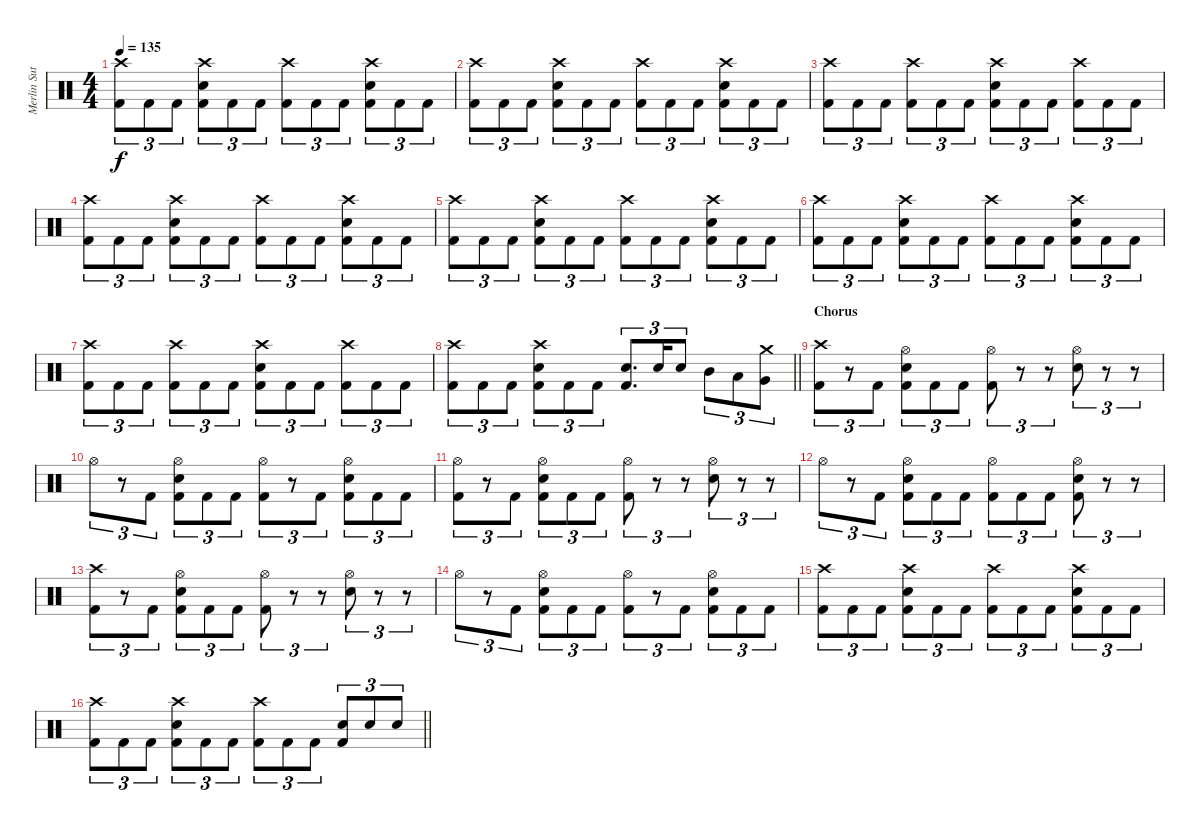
\track ("Merlin Sutter" "Merlin Sut") {instrument percussion}
\staff {score}
\articulation defaults
\ts (4 4)
\tempo 135
\clef neutral
\ks c
("Crash high (hit)" "Kick (hit) 2").8{tu (3 2) dy f} "Kick (hit) 2".8{tu (3 2)} "Kick (hit) 2".8{tu (3 2)} ("Crash high (hit)" "Snare (hit) 2" "Kick (hit) 2").8{tu (3 2)} "Kick (hit) 2".8{tu (3 2)} "Kick (hit) 2".8{tu (3 2)} ("Crash high (hit)" "Kick (hit) 2").8{tu (3 2)} "Kick (hit) 2".8{tu (3 2)} "Kick (hit) 2".8{tu (3 2)} ("Crash high (hit)" "Snare (hit) 2" "Kick (hit) 2").8{tu (3 2)} "Kick (hit) 2".8{tu (3 2)} "Kick (hit) 2".8{tu (3 2)} |
("Crash high (hit)" "Kick (hit) 2").8{tu (3 2)} "Kick (hit) 2".8{tu (3 2)} "Kick (hit) 2".8{tu (3 2)} ("Crash high (hit)" "Snare (hit) 2" "Kick (hit) 2").8{tu (3 2)} "Kick (hit) 2".8{tu (3 2)} "Kick (hit) 2".8{tu (3 2)} ("Crash high (hit)" "Kick (hit) 2").8{tu (3 2)} "Kick (hit) 2".8{tu (3 2)} "Kick (hit) 2".8{tu (3 2)} ("Crash high (hit)" "Snare (hit) 2" "Kick (hit) 2").8{tu (3 2)} "Kick (hit) 2".8{tu (3 2)} "Kick (hit) 2".8{tu (3 2)} |
("Crash high (hit)" "Kick (hit) 2").8{tu (3 2)} "Kick (hit) 2".8{tu (3 2)} "Kick (hit) 2".8{tu (3 2)} ("Crash high (hit)" "Kick (hit) 2").8{tu (3 2)} "Kick (hit) 2".8{tu (3 2)} "Kick (hit) 2".8{tu (3 2)} ("Crash high (hit)" "Snare (hit) 2" "Kick (hit) 2").8{tu (3 2)} "Kick (hit) 2".8{tu (3 2)} "Kick (hit) 2".8{tu (3 2)} ("Crash high (hit)" "Kick (hit) 2").8{tu (3 2)} "Kick (hit) 2".8{tu (3 2)} "Kick (hit) 2".8{tu (3 2)} |
("Crash high (hit)" "Kick (hit) 2").8{tu (3 2)} "Kick (hit) 2".8{tu (3 2)} "Kick (hit) 2".8{tu (3 2)} ("Crash high (hit)" "Snare (hit) 2" "Kick (hit) 2").8{tu (3 2)} "Kick (hit) 2".8{tu (3 2)} "Kick (hit) 2".8{tu (3 2)} ("Crash high (hit)" "Kick (hit) 2").8{tu (3 2)} "Kick (hit) 2".8{tu (3 2)} "Kick (hit) 2".8{tu (3 2)} ("Crash high (hit)" "Snare (hit) 2" "Kick (hit) 2").8{tu (3 2)} "Kick (hit) 2".8{tu (3 2)} "Kick (hit) 2".8{tu (3 2)} |
("Crash high (hit)" "Kick (hit) 2").8{tu (3 2)} "Kick (hit) 2".8{tu (3 2)} "Kick (hit) 2".8{tu (3 2)} ("Crash high (hit)" "Snare (hit) 2" "Kick (hit) 2").8{tu (3 2)} "Kick (hit) 2".8{tu (3 2)} "Kick (hit) 2".8{tu (3 2)} ("Crash high (hit)" "Kick (hit) 2").8{tu (3 2)} "Kick (hit) 2".8{tu (3 2)} "Kick (hit) 2".8{tu (3 2)} ("Crash high (hit)" "Snare (hit) 2" "Kick (hit) 2").8{tu (3 2)} "Kick (hit) 2".8{tu (3 2)} "Kick (hit) 2".8{tu (3 2)} |
("Crash high (hit)" "Kick (hit) 2").8{tu (3 2)} "Kick (hit) 2".8{tu (3 2)} "Kick (hit) 2".8{tu (3 2)} ("Crash high (hit)" "Snare (hit) 2" "Kick (hit) 2").8{tu (3 2)} "Kick (hit) 2".8{tu (3 2)} "Kick (hit) 2".8{tu (3 2)} ("Crash high (hit)" "Kick (hit) 2").8{tu (3 2)} "Kick (hit) 2".8{tu (3 2)} "Kick (hit) 2".8{tu (3 2)} ("Crash high (hit)" "Snare (hit) 2" "Kick (hit) 2").8{tu (3 2)} "Kick (hit) 2".8{tu (3 2)} "Kick (hit) 2".8{tu (3 2)} |
("Crash high (hit)" "Kick (hit) 2").8{tu (3 2)} "Kick (hit) 2".8{tu (3 2)} "Kick (hit) 2".8{tu (3 2)} ("Crash high (hit)" "Kick (hit) 2").8{tu (3 2)} "Kick (hit) 2".8{tu (3 2)} "Kick (hit) 2".8{tu (3 2)} ("Crash high (hit)" "Snare (hit) 2" "Kick (hit) 2").8{tu (3 2)} "Kick (hit) 2".8{tu (3 2)} "Kick (hit) 2".8{tu (3 2)} ("Crash high (hit)" "Kick (hit) 2").8{tu (3 2)} "Kick (hit) 2".8{tu (3 2)} "Kick (hit) 2".8{tu (3 2)} |
\barLineRight lightlight
("Crash high (hit)" "Kick (hit) 2").8{tu (3 2)} "Kick (hit) 2".8{tu (3 2)} "Kick (hit) 2".8{tu (3 2)} ("Crash high (hit)" "Snare (hit) 2" "Kick (hit) 2").8{tu (3 2)} "Kick (hit) 2".8{tu (3 2)} "Kick (hit) 2".8{tu (3 2)} ("Snare (hit) 2" "Kick (hit) 2").8{d tu (3 2)} "Snare (hit) 2".16{tu (3 2)} "Snare (hit) 2".8{tu (3 2)} "Mid Tom (hit)".8{tu (3 2)} "Low Tom (hit)".8{tu (3 2)} ("Crash medium (hit)" "Very Low Tom (hit)").8{tu (3 2)} |
\section ("" "Chorus")
("Crash high (hit)" "Kick (hit) 2").8{tu (3 2)} r.8{tu (3 2)} "Kick (hit) 2".8{tu (3 2)} ("Hi-Hat (open)" "Snare (hit) 2" "Kick (hit) 2").8{tu (3 2)} "Kick (hit) 2".8{tu (3 2)} "Kick (hit) 2".8{tu (3 2)} ("Hi-Hat (open)" "Kick (hit) 2").8{tu (3 2)} r.8{tu (3 2)} r.8{tu (3 2)} ("Hi-Hat (open)" "Snare (hit) 2").8{tu (3 2)} r.8{tu (3 2)} r.8{tu (3 2)} |
"Hi-Hat (open)".8{tu (3 2)} r.8{tu (3 2)} "Kick (hit) 2".8{tu (3 2)} ("Hi-Hat (open)" "Snare (hit) 2" "Kick (hit) 2").8{tu (3 2)} "Kick (hit) 2".8{tu (3 2)} "Kick (hit) 2".8{tu (3 2)} ("Hi-Hat (open)" "Kick (hit) 2").8{tu (3 2)} r.8{tu (3 2)} "Kick (hit) 2".8{tu (3 2)} ("Hi-Hat (open)" "Snare (hit) 2" "Kick (hit) 2").8{tu (3 2)} "Kick (hit) 2".8{tu (3 2)} "Kick (hit) 2".8{tu (3 2)} |
("Hi-Hat (open)" "Kick (hit) 2").8{tu (3 2)} r.8{tu (3 2)} "Kick (hit) 2".8{tu (3 2)} ("Hi-Hat (open)" "Snare (hit) 2" "Kick (hit) 2").8{tu (3 2)} "Kick (hit) 2".8{tu (3 2)} "Kick (hit) 2".8{tu (3 2)} ("Hi-Hat (open)" "Kick (hit) 2").8{tu (3 2)} r.8{tu (3 2)} r.8{tu (3 2)} ("Hi-Hat (open)" "Snare (hit) 2").8{tu (3 2)} r.8{tu (3 2)} r.8{tu (3 2)} |
"Hi-Hat (open)".8{tu (3 2)} r.8{tu (3 2)} "Kick (hit) 2".8{tu (3 2)} ("Hi-Hat (open)" "Snare (hit) 2" "Kick (hit) 2").8{tu (3 2)} "Kick (hit) 2".8{tu (3 2)} "Kick (hit) 2".8{tu (3 2)} ("Hi-Hat (open)" "Kick (hit) 2").8{tu (3 2)} "Kick (hit) 2".8{tu (3 2)} "Kick (hit) 2".8{tu (3 2)} ("Hi-Hat (open)" "Snare (hit) 2" "Kick (hit) 2").8{tu (3 2)} r.8{tu (3 2)} r.8{tu (3 2)} |
("Crash high (hit)" "Kick (hit) 2").8{tu (3 2)} r.8{tu (3 2)} "Kick (hit) 2".8{tu (3 2)} ("Hi-Hat (open)" "Snare (hit) 2" "Kick (hit) 2").8{tu (3 2)} "Kick (hit) 2".8{tu (3 2)} "Kick (hit) 2".8{tu (3 2)} ("Hi-Hat (open)" "Kick (hit) 2").8{tu (3 2)} r.8{tu (3 2)} r.8{tu (3 2)} ("Hi-Hat (open)" "Snare (hit) 2").8{tu (3 2)} r.8{tu (3 2)} r.8{tu (3 2)} |
"Hi-Hat (open)".8{tu (3 2)} r.8{tu (3 2)} "Kick (hit) 2".8{tu (3 2)} ("Hi-Hat (open)" "Snare (hit) 2" "Kick (hit) 2").8{tu (3 2)} "Kick (hit) 2".8{tu (3 2)} "Kick (hit) 2".8{tu (3 2)} ("Hi-Hat (open)" "Kick (hit) 2").8{tu (3 2)} r.8{tu (3 2)} "Kick (hit) 2".8{tu (3 2)} ("Hi-Hat (open)" "Snare (hit) 2" "Kick (hit) 2").8{tu (3 2)} "Kick (hit) 2".8{tu (3 2)} "Kick (hit) 2".8{tu (3 2)} |
("Crash high (hit)" "Kick (hit) 2").8{tu (3 2)} "Kick (hit) 2".8{tu (3 2)} "Kick (hit) 2".8{tu (3 2)} ("Crash high (hit)" "Snare (hit) 2" "Kick (hit) 2").8{tu (3 2)} "Kick (hit) 2".8{tu (3 2)} "Kick (hit) 2".8{tu (3 2)} ("Crash high (hit)" "Kick (hit) 2").8{tu (3 2)} "Kick (hit) 2".8{tu (3 2)} "Kick (hit) 2".8{tu (3 2)} ("Crash high (hit)" "Snare (hit) 2" "Kick (hit) 2").8{tu (3 2)} "Kick (hit) 2".8{tu (3 2)} "Kick (hit) 2".8{tu (3 2)} |
\barLineRight lightlight
("Crash high (hit)" "Kick (hit) 2").8{tu (3 2)} "Kick (hit) 2".8{tu (3 2)} "Kick (hit) 2".8{tu (3 2)} ("Crash high (hit)" "Snare (hit) 2" "Kick (hit) 2").8{tu (3 2)} "Kick (hit) 2".8{tu (3 2)} "Kick (hit) 2".8{tu (3 2)} ("Crash high (hit)" "Kick (hit) 2").8{tu (3 2)} "Kick (hit) 2".8{tu (3 2)} "Kick (hit) 2".8{tu (3 2)} ("Snare (hit) 2" "Kick (hit) 2").8{tu (3 2)} "Snare (hit) 2".8{tu (3 2)} "Snare (hit) 2".8{tu (3 2)}
